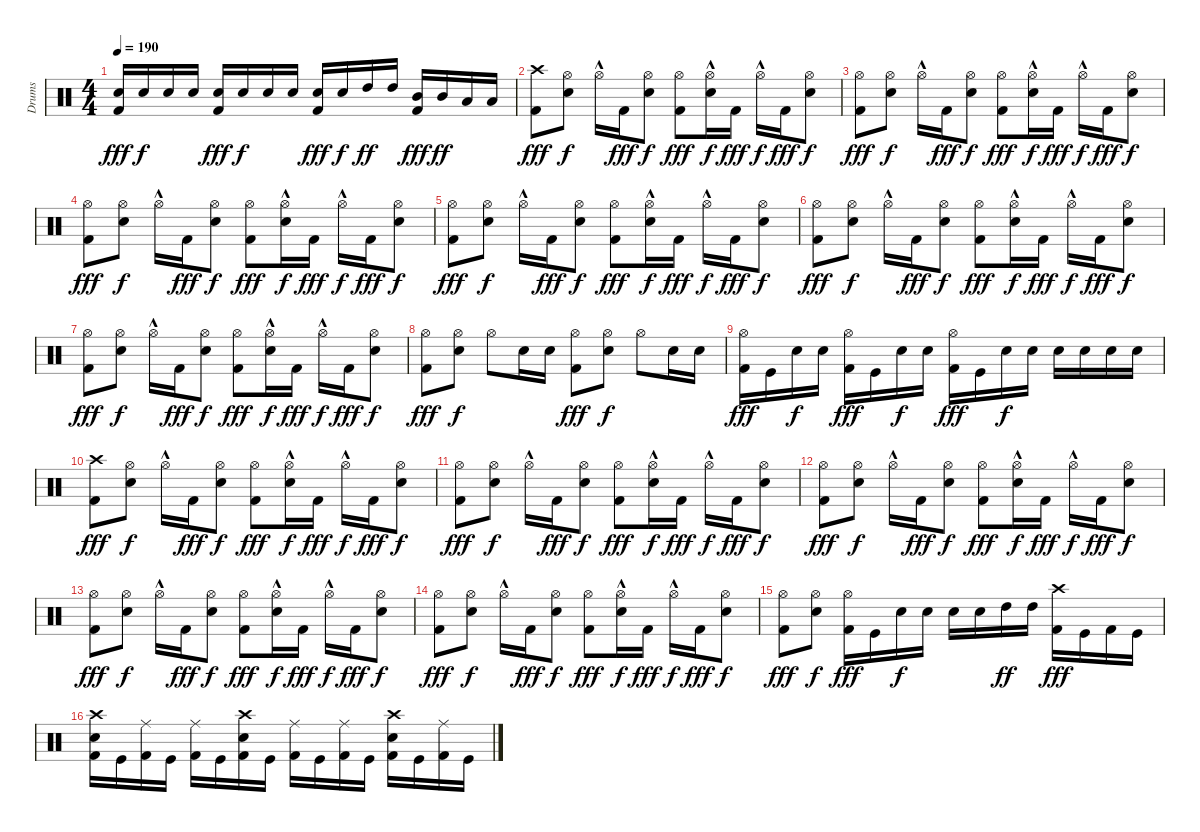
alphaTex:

\track ("Drums" "Drums") {instrument percussion}
\staff {score}
\articulation defaults
\ts (4 4)
\tempo 190
\clef neutral
\ks c
("Electric Snare (hit)" "Kick (hit) 2").16{dy fff} "Electric Snare (hit)".16{dy f} "Electric Snare (hit)".16 "Electric Snare (hit)".16 ("Electric Snare (hit)" "Kick (hit) 2").16{dy fff} "Electric Snare (hit)".16{dy f} "Electric Snare (hit)".16 "Electric Snare (hit)".16 ("Electric Snare (hit)" "Kick (hit) 2").16{dy fff} "Electric Snare (hit)".16{dy f} "High Tom (hit)".16{dy ff} "High Tom (hit)".16 ("Mid Tom (hit)" "Kick (hit) 2").16{dy fff} "Mid Tom (hit)".16{dy ff} "Low Tom (hit)".16 "Low Tom (hit)".16 |
("Crash high (hit)" "Kick (hit) 2").8{dy fff} ("Hi-Hat (open)" "Electric Snare (hit)").8{dy f} "Hi-Hat (open)"{hac}.16 "Kick (hit) 2".16{dy fff} ("Hi-Hat (open)" "Electric Snare (hit)").8{dy f} ("Hi-Hat (open)" "Kick (hit) 2").8{dy fff} ("Hi-Hat (open)"{hac} "Electric Snare (hit)").16{dy f} "Kick (hit) 2".16{dy fff} "Hi-Hat (open)"{hac}.16{dy f} "Kick (hit) 2".16{dy fff} ("Hi-Hat (open)" "Electric Snare (hit)").8{dy f} |
("Hi-Hat (open)" "Kick (hit) 2").8{dy fff} ("Hi-Hat (open)" "Electric Snare (hit)").8{dy f} "Hi-Hat (open)"{hac}.16 "Kick (hit) 2".16{dy fff} ("Hi-Hat (open)" "Electric Snare (hit)").8{dy f} ("Hi-Hat (open)" "Kick (hit) 2").8{dy fff} ("Hi-Hat (open)"{hac} "Electric Snare (hit)").16{dy f} "Kick (hit) 2".16{dy fff} "Hi-Hat (open)"{hac}.16{dy f} "Kick (hit) 2".16{dy fff} ("Hi-Hat (open)" "Electric Snare (hit)").8{dy f} |
("Hi-Hat (open)" "Kick (hit) 2").8{dy fff} ("Hi-Hat (open)" "Electric Snare (hit)").8{dy f} "Hi-Hat (open)"{hac}.16 "Kick (hit) 2".16{dy fff} ("Hi-Hat (open)" "Electric Snare (hit)").8{dy f} ("Hi-Hat (open)" "Kick (hit) 2").8{dy fff} ("Hi-Hat (open)"{hac} "Electric Snare (hit)").16{dy f} "Kick (hit) 2".16{dy fff} "Hi-Hat (open)"{hac}.16{dy f} "Kick (hit) 2".16{dy fff} ("Hi-Hat (open)" "Electric Snare (hit)").8{dy f} |
("Hi-Hat (open)" "Kick (hit) 2").8{dy fff} ("Hi-Hat (open)" "Electric Snare (hit)").8{dy f} "Hi-Hat (open)"{hac}.16 "Kick (hit) 2".16{dy fff} ("Hi-Hat (open)" "Electric Snare (hit)").8{dy f} ("Hi-Hat (open)" "Kick (hit) 2").8{dy fff} ("Hi-Hat (open)"{hac} "Electric Snare (hit)").16{dy f} "Kick (hit) 2".16{dy fff} "Hi-Hat (open)"{hac}.16{dy f} "Kick (hit) 2".16{dy fff} ("Hi-Hat (open)" "Electric Snare (hit)").8{dy f} |
("Hi-Hat (open)" "Kick (hit) 2").8{dy fff} ("Hi-Hat (open)" "Electric Snare (hit)").8{dy f} "Hi-Hat (open)"{hac}.16 "Kick (hit) 2".16{dy fff} ("Hi-Hat (open)" "Electric Snare (hit)").8{dy f} ("Hi-Hat (open)" "Kick (hit) 2").8{dy fff} ("Hi-Hat (open)"{hac} "Electric Snare (hit)").16{dy f} "Kick (hit) 2".16{dy fff} "Hi-Hat (open)"{hac}.16{dy f} "Kick (hit) 2".16{dy fff} ("Hi-Hat (open)" "Electric Snare (hit)").8{dy f} |
("Hi-Hat (open)" "Kick (hit) 2").8{dy fff} ("Hi-Hat (open)" "Electric Snare (hit)").8{dy f} "Hi-Hat (open)"{hac}.16 "Kick (hit) 2".16{dy fff} ("Hi-Hat (open)" "Electric Snare (hit)").8{dy f} ("Hi-Hat (open)" "Kick (hit) 2").8{dy fff} ("Hi-Hat (open)"{hac} "Electric Snare (hit)").16{dy f} "Kick (hit) 2".16{dy fff} "Hi-Hat (open)"{hac}.16{dy f} "Kick (hit) 2".16{dy fff} ("Hi-Hat (open)" "Electric Snare (hit)").8{dy f} |
("Hi-Hat (open)" "Kick (hit) 2").8{dy fff} ("Hi-Hat (open)" "Electric Snare (hit)").8{dy f} "Hi-Hat (open)".8 "Electric Snare (hit)".16 "Electric Snare (hit)".16 ("Hi-Hat (open)" "Kick (hit) 2").8{dy fff} ("Hi-Hat (open)" "Electric Snare (hit)").8{dy f} "Hi-Hat (open)".8 "Electric Snare (hit)".16 "Electric Snare (hit)".16 |
("Hi-Hat (open)" "Kick (hit) 2").16{dy fff} "Kick (hit)".16 "Electric Snare (hit)".16{dy f} "Electric Snare (hit)".16 ("Hi-Hat (open)" "Kick (hit) 2").16{dy fff} "Kick (hit)".16 "Electric Snare (hit)".16{dy f} "Electric Snare (hit)".16 ("Hi-Hat (open)" "Kick (hit) 2").16{dy fff} "Kick (hit)".16 "Electric Snare (hit)".16{dy f} "Electric Snare (hit)".16 "Electric Snare (hit)".16 "Electric Snare (hit)".16 "Electric Snare (hit)".16 "Electric Snare (hit)".16 |
("Crash high (hit)" "Kick (hit) 2").8{dy fff} ("Hi-Hat (open)" "Electric Snare (hit)").8{dy f} "Hi-Hat (open)"{hac}.16 "Kick (hit) 2".16{dy fff} ("Hi-Hat (open)" "Electric Snare (hit)").8{dy f} ("Hi-Hat (open)" "Kick (hit) 2").8{dy fff} ("Hi-Hat (open)"{hac} "Electric Snare (hit)").16{dy f} "Kick (hit) 2".16{dy fff} "Hi-Hat (open)"{hac}.16{dy f} "Kick (hit) 2".16{dy fff} ("Hi-Hat (open)" "Electric Snare (hit)").8{dy f} |
("Hi-Hat (open)" "Kick (hit) 2").8{dy fff} ("Hi-Hat (open)" "Electric Snare (hit)").8{dy f} "Hi-Hat (open)"{hac}.16 "Kick (hit) 2".16{dy fff} ("Hi-Hat (open)" "Electric Snare (hit)").8{dy f} ("Hi-Hat (open)" "Kick (hit) 2").8{dy fff} ("Hi-Hat (open)"{hac} "Electric Snare (hit)").16{dy f} "Kick (hit) 2".16{dy fff} "Hi-Hat (open)"{hac}.16{dy f} "Kick (hit) 2".16{dy fff} ("Hi-Hat (open)" "Electric Snare (hit)").8{dy f} |
("Hi-Hat (open)" "Kick (hit) 2").8{dy fff} ("Hi-Hat (open)" "Electric Snare (hit)").8{dy f} "Hi-Hat (open)"{hac}.16 "Kick (hit) 2".16{dy fff} ("Hi-Hat (open)" "Electric Snare (hit)").8{dy f} ("Hi-Hat (open)" "Kick (hit) 2").8{dy fff} ("Hi-Hat (open)"{hac} "Electric Snare (hit)").16{dy f} "Kick (hit) 2".16{dy fff} "Hi-Hat (open)"{hac}.16{dy f} "Kick (hit) 2".16{dy fff} ("Hi-Hat (open)" "Electric Snare (hit)").8{dy f} |
("Hi-Hat (open)" "Kick (hit) 2").8{dy fff} ("Hi-Hat (open)" "Electric Snare (hit)").8{dy f} "Hi-Hat (open)"{hac}.16 "Kick (hit) 2".16{dy fff} ("Hi-Hat (open)" "Electric Snare (hit)").8{dy f} ("Hi-Hat (open)" "Kick (hit) 2").8{dy fff} ("Hi-Hat (open)"{hac} "Electric Snare (hit)").16{dy f} "Kick (hit) 2".16{dy fff} "Hi-Hat (open)"{hac}.16{dy f} "Kick (hit) 2".16{dy fff} ("Hi-Hat (open)" "Electric Snare (hit)").8{dy f} |
("Hi-Hat (open)" "Kick (hit) 2").8{dy fff} ("Hi-Hat (open)" "Electric Snare (hit)").8{dy f} "Hi-Hat (open)"{hac}.16 "Kick (hit) 2".16{dy fff} ("Hi-Hat (open)" "Electric Snare (hit)").8{dy f} ("Hi-Hat (open)" "Kick (hit) 2").8{dy fff} ("Hi-Hat (open)"{hac} "Electric Snare (hit)").16{dy f} "Kick (hit) 2".16{dy fff} "Hi-Hat (open)"{hac}.16{dy f} "Kick (hit) 2".16{dy fff} ("Hi-Hat (open)" "Electric Snare (hit)").8{dy f} |
("Hi-Hat (open)" "Kick (hit) 2").8{dy fff} ("Hi-Hat (open)" "Electric Snare (hit)").8{dy f} ("Hi-Hat (open)" "Kick (hit) 2").16{dy fff} "Kick (hit)".16 "Electric Snare (hit)".16{dy f} "Electric Snare (hit)".16 "Electric Snare (hit)".16 "Electric Snare (hit)".16 "High Tom (hit)".16{dy ff} "High Tom (hit)".16 ("Crash high (hit)" "Kick (hit) 2").16{dy fff} "Kick (hit)".16 "Kick (hit) 2".16 "Kick (hit)".16 |
("Crash high (hit)" "Electric Snare (hit)" "Kick (hit) 2").16 "Kick (hit)".16 ("Ride (middle)" "Kick (hit) 2").16 "Kick (hit)".16 ("Ride (middle)" "Kick (hit) 2").16 "Kick (hit)".16 ("Crash high (hit)" "Electric Snare (hit)" "Kick (hit) 2").16 "Kick (hit)".16 ("Ride (middle)" "Kick (hit) 2").16 "Kick (hit)".16 ("Ride (middle)" "Kick (hit) 2").16 "Kick (hit)".16 ("Crash high (hit)" "Electric Snare (hit)" "Kick (hit) 2").16 "Kick (hit)".16 ("Ride (middle)" "Kick (hit) 2").16 "Kick (hit)".16
